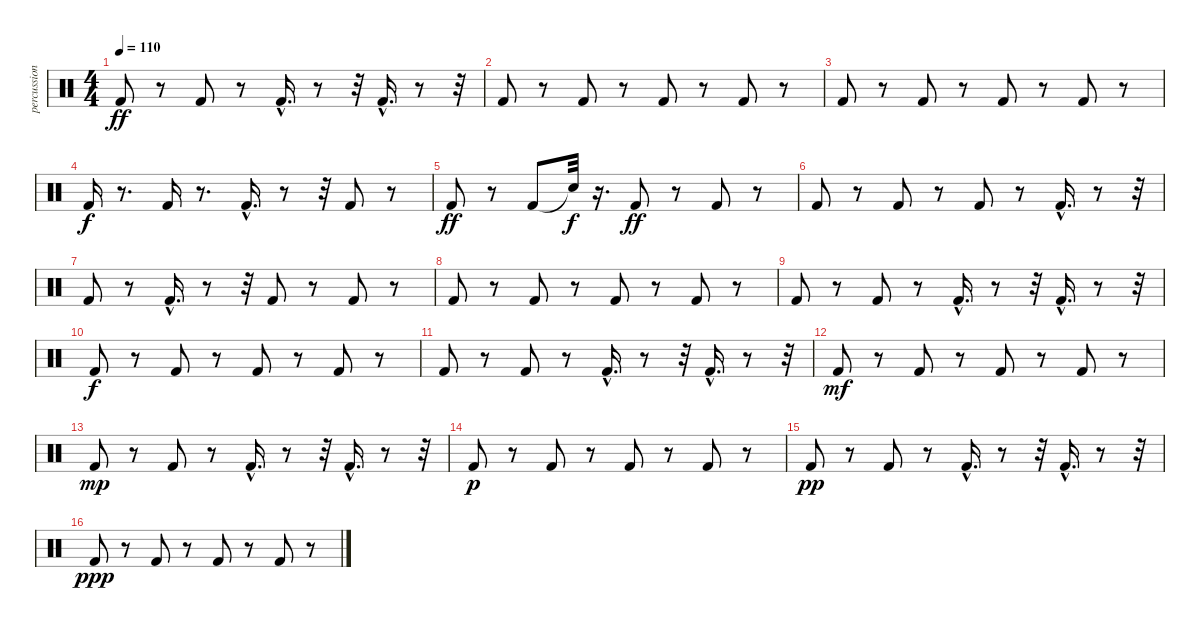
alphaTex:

\track ("percussions 1" "percussion") {instrument percussion}
\staff {score}
\articulation defaults
\ts (4 4)
\tempo 110
\clef neutral
\ks c "Kick (hit) 2".8{dy ff}
r.8 "Kick (hit) 2".8 r.8 "Kick (hit) 2"{hac}.16{d} r.8 r.32 "Kick (hit) 2"{hac}.16{d} r.8 r.32 |
"Kick (hit) 2".8 r.8 "Kick (hit) 2".8 r.8 "Kick (hit) 2".8 r.8 "Kick (hit) 2".8 r.8 |
"Kick (hit) 2".8 r.8 "Kick (hit) 2".8 r.8 "Kick (hit) 2".8 r.8 "Kick (hit) 2".8 r.8 |
"Kick (hit) 2".16{dy f} r.8{d} "Kick (hit) 2".16 r.8{d} "Kick (hit) 2"{hac}.16{d} r.8 r.32 "Kick (hit) 2".8 r.8 |
"Kick (hit) 2".8{dy ff} r.8 "Kick (hit) 2".8 "Snare (hit)"{t}.32{dy f} r.16{d} "Kick (hit) 2".8{dy ff} r.8 "Kick (hit) 2".8 r.8 |
"Kick (hit) 2".8 r.8 "Kick (hit) 2".8 r.8 "Kick (hit) 2".8 r.8 "Kick (hit) 2"{hac}.16{d} r.8 r.32 |
"Kick (hit) 2".8 r.8 "Kick (hit) 2"{hac}.16{d} r.8 r.32 "Kick (hit) 2".8 r.8 "Kick (hit) 2".8 r.8 |
"Kick (hit) 2".8 r.8 "Kick (hit) 2".8 r.8 "Kick (hit) 2".8 r.8 "Kick (hit) 2".8 r.8 |
"Kick (hit) 2".8 r.8 "Kick (hit) 2".8 r.8 "Kick (hit) 2"{hac}.16{d} r.8 r.32 "Kick (hit) 2"{hac}.16{d} r.8 r.32 |
"Kick (hit) 2".8{dy f} r.8 "Kick (hit) 2".8 r.8 "Kick (hit) 2".8 r.8 "Kick (hit) 2".8 r.8 |
"Kick (hit) 2".8 r.8 "Kick (hit) 2".8 r.8 "Kick (hit) 2"{hac}.16{d} r.8 r.32 "Kick (hit) 2"{hac}.16{d} r.8 r.32 |
"Kick (hit) 2".8{dy mf} r.8 "Kick (hit) 2".8 r.8 "Kick (hit) 2".8 r.8 "Kick (hit) 2".8 r.8 |
"Kick (hit) 2".8{dy mp} r.8 "Kick (hit) 2".8 r.8 "Kick (hit) 2"{hac}.16{d} r.8 r.32 "Kick (hit) 2"{hac}.16{d} r.8 r.32 |
"Kick (hit) 2".8{dy p} r.8 "Kick (hit) 2".8 r.8 "Kick (hit) 2".8 r.8 "Kick (hit) 2".8 r.8 |
"Kick (hit) 2".8{dy pp} r.8 "Kick (hit) 2".8 r.8 "Kick (hit) 2"{hac}.16{d} r.8 r.32 "Kick (hit) 2"{hac}.16{d} r.8 r.32 |
"Kick (hit) 2".8{dy ppp} r.8 "Kick (hit) 2".8 r.8 "Kick (hit) 2".8 r.8 "Kick (hit) 2".8 r.8
